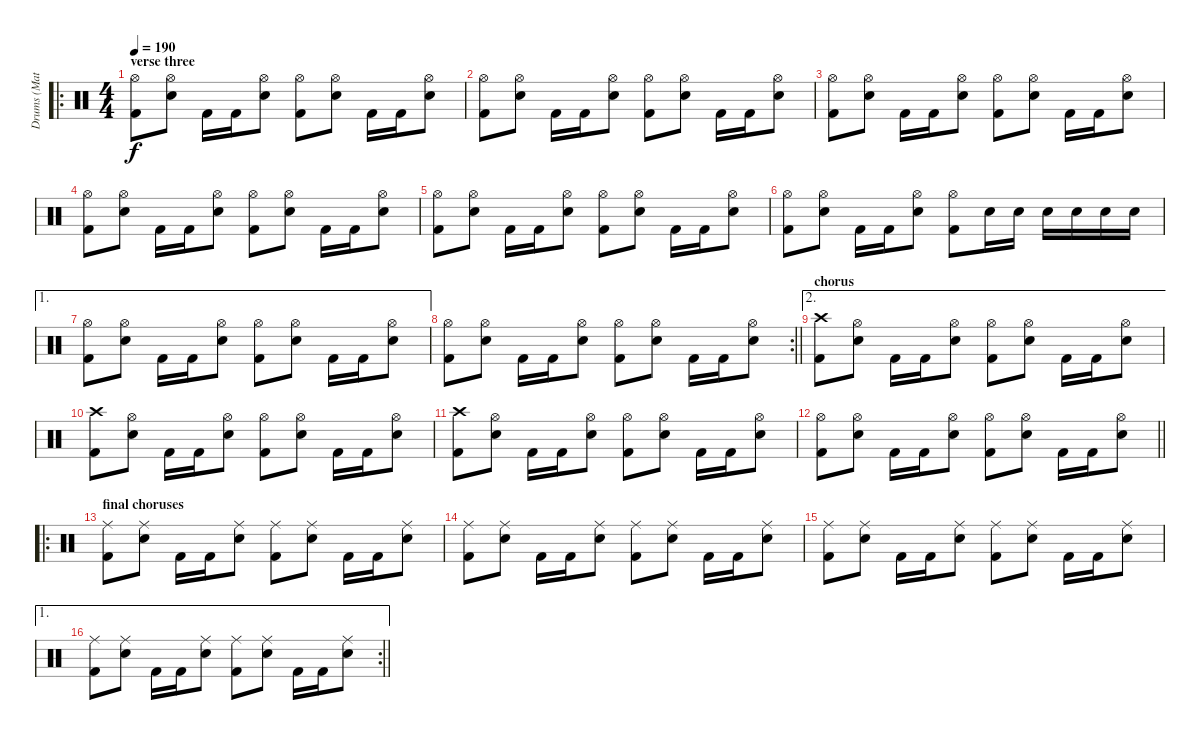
\track ("Drums (Matt/Chris)" "Drums (Mat") {instrument percussion}
\staff {score}
\articulation defaults
\ro
\ts (4 4)
\section ("" "verse three")
\tempo 190
\clef neutral
\ks c
("Hi-Hat (open)" "Kick (hit) 2").8{dy f} ("Hi-Hat (open)" "Snare (hit) 2").8 "Kick (hit) 2".16 "Kick (hit) 2".16 ("Hi-Hat (open)" "Snare (hit) 2").8 ("Hi-Hat (open)" "Kick (hit) 2").8 ("Hi-Hat (open)" "Snare (hit) 2").8 "Kick (hit) 2".16 "Kick (hit) 2".16 ("Hi-Hat (open)" "Snare (hit) 2").8 |
("Hi-Hat (open)" "Kick (hit) 2").8 ("Hi-Hat (open)" "Snare (hit) 2").8 "Kick (hit) 2".16 "Kick (hit) 2".16 ("Hi-Hat (open)" "Snare (hit) 2").8 ("Hi-Hat (open)" "Kick (hit) 2").8 ("Hi-Hat (open)" "Snare (hit) 2").8 "Kick (hit) 2".16 "Kick (hit) 2".16 ("Hi-Hat (open)" "Snare (hit) 2").8 |
("Hi-Hat (open)" "Kick (hit) 2").8 ("Hi-Hat (open)" "Snare (hit) 2").8 "Kick (hit) 2".16 "Kick (hit) 2".16 ("Hi-Hat (open)" "Snare (hit) 2").8 ("Hi-Hat (open)" "Kick (hit) 2").8 ("Hi-Hat (open)" "Snare (hit) 2").8 "Kick (hit) 2".16 "Kick (hit) 2".16 ("Hi-Hat (open)" "Snare (hit) 2").8 |
("Hi-Hat (open)" "Kick (hit) 2").8 ("Hi-Hat (open)" "Snare (hit) 2").8 "Kick (hit) 2".16 "Kick (hit) 2".16 ("Hi-Hat (open)" "Snare (hit) 2").8 ("Hi-Hat (open)" "Kick (hit) 2").8 ("Hi-Hat (open)" "Snare (hit) 2").8 "Kick (hit) 2".16 "Kick (hit) 2".16 ("Hi-Hat (open)" "Snare (hit) 2").8 |
("Hi-Hat (open)" "Kick (hit) 2").8 ("Hi-Hat (open)" "Snare (hit) 2").8 "Kick (hit) 2".16 "Kick (hit) 2".16 ("Hi-Hat (open)" "Snare (hit) 2").8 ("Hi-Hat (open)" "Kick (hit) 2").8 ("Hi-Hat (open)" "Snare (hit) 2").8 "Kick (hit) 2".16 "Kick (hit) 2".16 ("Hi-Hat (open)" "Snare (hit) 2").8 |
("Hi-Hat (open)" "Kick (hit) 2").8 ("Hi-Hat (open)" "Snare (hit) 2").8 "Kick (hit) 2".16 "Kick (hit) 2".16 ("Hi-Hat (open)" "Snare (hit) 2").8 ("Hi-Hat (open)" "Kick (hit) 2").8 "Snare (hit) 2".16 "Snare (hit) 2".16 "Snare (hit) 2".16 "Snare (hit) 2".16 "Snare (hit) 2".16 "Snare (hit) 2".16 |
\ae 1
("Hi-Hat (open)" "Kick (hit) 2").8 ("Hi-Hat (open)" "Snare (hit) 2").8 "Kick (hit) 2".16 "Kick (hit) 2".16 ("Hi-Hat (open)" "Snare (hit) 2").8 ("Hi-Hat (open)" "Kick (hit) 2").8 ("Hi-Hat (open)" "Snare (hit) 2").8 "Kick (hit) 2".16 "Kick (hit) 2".16 ("Hi-Hat (open)" "Snare (hit) 2").8 |
\rc 2
\barLineRight lightlight
("Hi-Hat (open)" "Kick (hit) 2").8 ("Hi-Hat (open)" "Snare (hit) 2").8 "Kick (hit) 2".16 "Kick (hit) 2".16 ("Hi-Hat (open)" "Snare (hit) 2").8 ("Hi-Hat (open)" "Kick (hit) 2").8 ("Hi-Hat (open)" "Snare (hit) 2").8 "Kick (hit) 2".16 "Kick (hit) 2".16 ("Hi-Hat (open)" "Snare (hit) 2").8 |
\ae 2
\section ("" "chorus")
("Crash high (hit)" "Kick (hit) 2").8 ("Hi-Hat (open)" "Snare (hit) 2").8 "Kick (hit) 2".16 "Kick (hit) 2".16 ("Hi-Hat (open)" "Snare (hit) 2").8 ("Hi-Hat (open)" "Kick (hit) 2").8 ("Hi-Hat (open)" "Snare (hit) 2").8 "Kick (hit) 2".16 "Kick (hit) 2".16 ("Hi-Hat (open)" "Snare (hit) 2").8 |
("Crash high (hit)" "Kick (hit) 2").8 ("Hi-Hat (open)" "Snare (hit) 2").8 "Kick (hit) 2".16 "Kick (hit) 2".16 ("Hi-Hat (open)" "Snare (hit) 2").8 ("Hi-Hat (open)" "Kick (hit) 2").8 ("Hi-Hat (open)" "Snare (hit) 2").8 "Kick (hit) 2".16 "Kick (hit) 2".16 ("Hi-Hat (open)" "Snare (hit) 2").8 |
("Crash high (hit)" "Kick (hit) 2").8 ("Hi-Hat (open)" "Snare (hit) 2").8 "Kick (hit) 2".16 "Kick (hit) 2".16 ("Hi-Hat (open)" "Snare (hit) 2").8 ("Hi-Hat (open)" "Kick (hit) 2").8 ("Hi-Hat (open)" "Snare (hit) 2").8 "Kick (hit) 2".16 "Kick (hit) 2".16 ("Hi-Hat (open)" "Snare (hit) 2").8 |
\barLineRight lightlight
("Hi-Hat (open)" "Kick (hit) 2").8 ("Hi-Hat (open)" "Snare (hit) 2").8 "Kick (hit) 2".16 "Kick (hit) 2".16 ("Hi-Hat (open)" "Snare (hit) 2").8 ("Hi-Hat (open)" "Kick (hit) 2").8 ("Hi-Hat (open)" "Snare (hit) 2").8 "Kick (hit) 2".16 "Kick (hit) 2".16 ("Hi-Hat (open)" "Snare (hit) 2").8 |
\ro
\section ("" "final choruses")
("Ride (middle)" "Kick (hit) 2").8 ("Ride (middle)" "Snare (hit) 2").8 "Kick (hit) 2".16 "Kick (hit) 2".16 ("Ride (middle)" "Snare (hit) 2").8 ("Ride (middle)" "Kick (hit) 2").8 ("Ride (middle)" "Snare (hit) 2").8 "Kick (hit) 2".16 "Kick (hit) 2".16 ("Ride (middle)" "Snare (hit) 2").8 |
("Ride (middle)" "Kick (hit) 2").8 ("Ride (middle)" "Snare (hit) 2").8 "Kick (hit) 2".16 "Kick (hit) 2".16 ("Ride (middle)" "Snare (hit) 2").8 ("Ride (middle)" "Kick (hit) 2").8 ("Ride (middle)" "Snare (hit) 2").8 "Kick (hit) 2".16 "Kick (hit) 2".16 ("Ride (middle)" "Snare (hit) 2").8 |
("Ride (middle)" "Kick (hit) 2").8 ("Ride (middle)" "Snare (hit) 2").8 "Kick (hit) 2".16 "Kick (hit) 2".16 ("Ride (middle)" "Snare (hit) 2").8 ("Ride (middle)" "Kick (hit) 2").8 ("Ride (middle)" "Snare (hit) 2").8 "Kick (hit) 2".16 "Kick (hit) 2".16 ("Ride (middle)" "Snare (hit) 2").8 |
\ae 1
\rc 2
\barLineRight lightlight
("Ride (middle)" "Kick (hit) 2").8 ("Ride (middle)" "Snare (hit) 2").8 "Kick (hit) 2".16 "Kick (hit) 2".16 ("Ride (middle)" "Snare (hit) 2").8 ("Ride (middle)" "Kick (hit) 2").8 ("Ride (middle)" "Snare (hit) 2").8 "Kick (hit) 2".16 "Kick (hit) 2".16 ("Ride (middle)" "Snare (hit) 2").8
